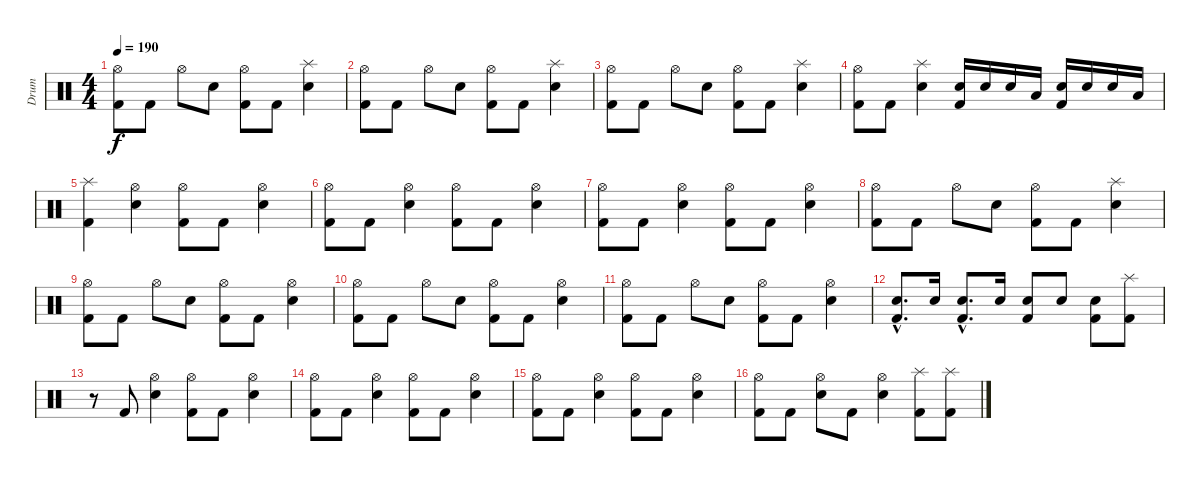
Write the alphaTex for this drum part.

\track ("Drum" "Drum") {instrument percussion}
\staff {score}
\articulation defaults
\ts (4 4)
\tempo 190
\clef neutral
\ks c
("Hi-Hat (open)" "Kick (hit) 2").8{dy f} "Kick (hit) 2".8 "Hi-Hat (open)".8 "Electric Snare (hit)".8 ("Hi-Hat (open)" "Kick (hit) 2").8 "Kick (hit) 2".8 ("Splash (hit)" "Electric Snare (hit)").4 |
("Hi-Hat (open)" "Kick (hit) 2").8 "Kick (hit) 2".8 "Hi-Hat (open)".8 "Electric Snare (hit)".8 ("Hi-Hat (open)" "Kick (hit) 2").8 "Kick (hit) 2".8 ("Splash (hit)" "Electric Snare (hit)").4 |
("Hi-Hat (open)" "Kick (hit) 2").8 "Kick (hit) 2".8 "Hi-Hat (open)".8 "Electric Snare (hit)".8 ("Hi-Hat (open)" "Kick (hit) 2").8 "Kick (hit) 2".8 ("Splash (hit)" "Electric Snare (hit)").4 |
("Hi-Hat (open)" "Kick (hit) 2").8 "Kick (hit) 2".8 ("Splash (hit)" "Electric Snare (hit)").4 ("Electric Snare (hit)" "Kick (hit) 2").16 "Electric Snare (hit)".16 "Electric Snare (hit)".16 "Low Tom (hit)".16 ("Electric Snare (hit)" "Kick (hit) 2").16 "Electric Snare (hit)".16 "Electric Snare (hit)".16 "Low Tom (hit)".16 |
("Splash (hit)" "Kick (hit) 2").4 ("Hi-Hat (open)" "Electric Snare (hit)").4 ("Hi-Hat (open)" "Kick (hit) 2").8 "Kick (hit) 2".8 ("Hi-Hat (open)" "Electric Snare (hit)").4 |
("Hi-Hat (open)" "Kick (hit) 2").8 "Kick (hit) 2".8 ("Hi-Hat (open)" "Electric Snare (hit)").4 ("Hi-Hat (open)" "Kick (hit) 2").8 "Kick (hit) 2".8 ("Hi-Hat (open)" "Electric Snare (hit)").4 |
("Hi-Hat (open)" "Kick (hit) 2").8 "Kick (hit) 2".8 ("Hi-Hat (open)" "Electric Snare (hit)").4 ("Hi-Hat (open)" "Kick (hit) 2").8 "Kick (hit) 2".8 ("Hi-Hat (open)" "Electric Snare (hit)").4 |
("Hi-Hat (open)" "Kick (hit) 2").8 "Kick (hit) 2".8 "Hi-Hat (open)".8 "Electric Snare (hit)".8 ("Hi-Hat (open)" "Kick (hit) 2").8 "Kick (hit) 2".8 ("Splash (hit)" "Electric Snare (hit)").4 |
("Hi-Hat (open)" "Kick (hit) 2").8 "Kick (hit) 2".8 "Hi-Hat (open)".8 "Electric Snare (hit)".8 ("Hi-Hat (open)" "Kick (hit) 2").8 "Kick (hit) 2".8 ("Hi-Hat (open)" "Electric Snare (hit)").4 |
("Hi-Hat (open)" "Kick (hit) 2").8 "Kick (hit) 2".8 "Hi-Hat (open)".8 "Electric Snare (hit)".8 ("Hi-Hat (open)" "Kick (hit) 2").8 "Kick (hit) 2".8 ("Hi-Hat (open)" "Electric Snare (hit)").4 |
("Hi-Hat (open)" "Kick (hit) 2").8 "Kick (hit) 2".8 "Hi-Hat (open)".8 "Electric Snare (hit)".8 ("Hi-Hat (open)" "Kick (hit) 2").8 "Kick (hit) 2".8 ("Hi-Hat (open)" "Electric Snare (hit)").4 |
("Electric Snare (hit)"{hac} "Kick (hit) 2"{hac}).8{d} "Electric Snare (hit)".16 ("Electric Snare (hit)"{hac} "Kick (hit) 2"{hac}).8{d} "Electric Snare (hit)".16 ("Electric Snare (hit)" "Kick (hit) 2").8 "Electric Snare (hit)".8 ("Electric Snare (hit)" "Kick (hit) 2").8 ("Splash (hit)" "Kick (hit) 2").8 |
r.8 "Kick (hit) 2".8 ("Hi-Hat (open)" "Electric Snare (hit)").4 ("Hi-Hat (open)" "Kick (hit) 2").8 "Kick (hit) 2".8 ("Hi-Hat (open)" "Electric Snare (hit)").4 |
("Hi-Hat (open)" "Kick (hit) 2").8 "Kick (hit) 2".8 ("Hi-Hat (open)" "Electric Snare (hit)").4 ("Hi-Hat (open)" "Kick (hit) 2").8 "Kick (hit) 2".8 ("Hi-Hat (open)" "Electric Snare (hit)").4 |
("Hi-Hat (open)" "Kick (hit) 2").8 "Kick (hit) 2".8 ("Hi-Hat (open)" "Electric Snare (hit)").4 ("Hi-Hat (open)" "Kick (hit) 2").8 "Kick (hit) 2".8 ("Hi-Hat (open)" "Electric Snare (hit)").4 |
("Hi-Hat (open)" "Kick (hit) 2").8 "Kick (hit) 2".8 ("Hi-Hat (open)" "Electric Snare (hit)").8 "Kick (hit) 2".8 ("Hi-Hat (open)" "Electric Snare (hit)").4 ("Splash (hit)" "Kick (hit) 2").8 ("Splash (hit)" "Kick (hit) 2").8
